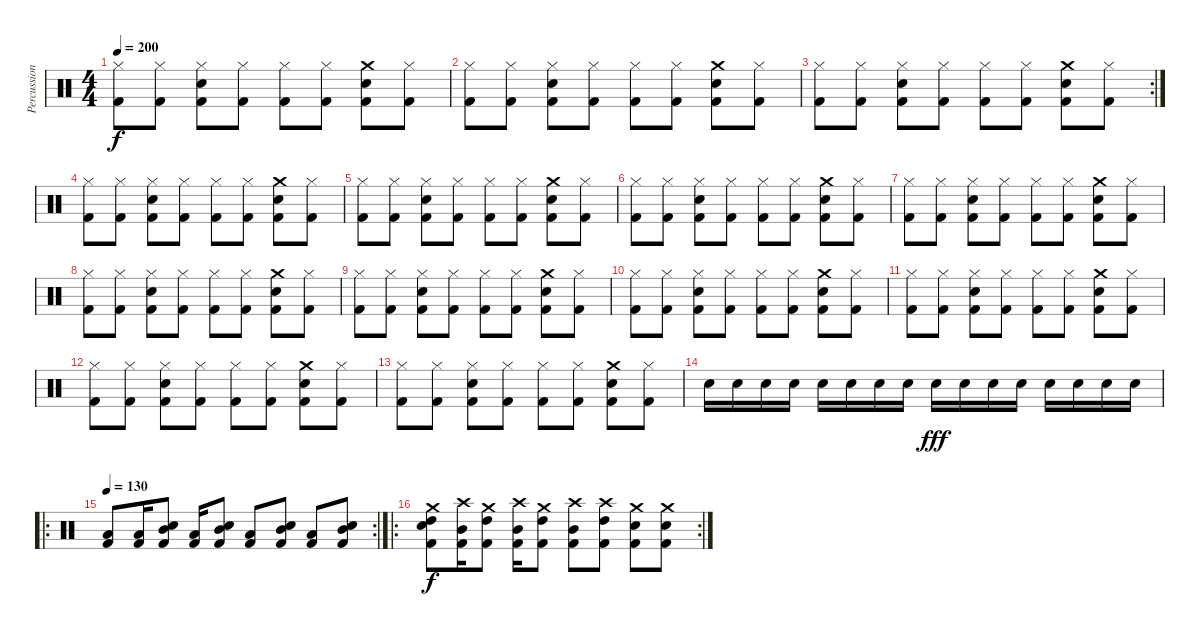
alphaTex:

\track ("Percussion" "Percussion") {instrument percussion}
\staff {score}
\articulation defaults
\ts (4 4)
\tempo 200
\clef neutral
\ks c
("Hi-Hat (closed)" "Kick (hit) 2").8{dy f} ("Hi-Hat (closed)" "Kick (hit) 2").8 ("Hi-Hat (closed)" "Snare (hit) 2" "Kick (hit) 2").8 ("Hi-Hat (closed)" "Kick (hit) 2").8 ("Hi-Hat (closed)" "Kick (hit) 2").8 ("Hi-Hat (closed)" "Kick (hit) 2").8 ("Crash medium (hit)" "Snare (hit) 2" "Kick (hit) 2").8 ("Hi-Hat (closed)" "Kick (hit) 2").8 |
("Hi-Hat (closed)" "Kick (hit) 2").8 ("Hi-Hat (closed)" "Kick (hit) 2").8 ("Hi-Hat (closed)" "Snare (hit) 2" "Kick (hit) 2").8 ("Hi-Hat (closed)" "Kick (hit) 2").8 ("Hi-Hat (closed)" "Kick (hit) 2").8 ("Hi-Hat (closed)" "Kick (hit) 2").8 ("Crash medium (hit)" "Snare (hit) 2" "Kick (hit) 2").8 ("Hi-Hat (closed)" "Kick (hit) 2").8 |
\rc 2
("Hi-Hat (closed)" "Kick (hit) 2").8 ("Hi-Hat (closed)" "Kick (hit) 2").8 ("Hi-Hat (closed)" "Snare (hit) 2" "Kick (hit) 2").8 ("Hi-Hat (closed)" "Kick (hit) 2").8 ("Hi-Hat (closed)" "Kick (hit) 2").8 ("Hi-Hat (closed)" "Kick (hit) 2").8 ("Crash medium (hit)" "Snare (hit) 2" "Kick (hit) 2").8 ("Hi-Hat (closed)" "Kick (hit) 2").8 |
("Hi-Hat (closed)" "Kick (hit) 2").8 ("Hi-Hat (closed)" "Kick (hit) 2").8 ("Hi-Hat (closed)" "Snare (hit) 2" "Kick (hit) 2").8 ("Hi-Hat (closed)" "Kick (hit) 2").8 ("Hi-Hat (closed)" "Kick (hit) 2").8 ("Hi-Hat (closed)" "Kick (hit) 2").8 ("Crash medium (hit)" "Snare (hit) 2" "Kick (hit) 2").8 ("Hi-Hat (closed)" "Kick (hit) 2").8 |
("Hi-Hat (closed)" "Kick (hit) 2").8 ("Hi-Hat (closed)" "Kick (hit) 2").8 ("Hi-Hat (closed)" "Snare (hit) 2" "Kick (hit) 2").8 ("Hi-Hat (closed)" "Kick (hit) 2").8 ("Hi-Hat (closed)" "Kick (hit) 2").8 ("Hi-Hat (closed)" "Kick (hit) 2").8 ("Crash medium (hit)" "Snare (hit) 2" "Kick (hit) 2").8 ("Hi-Hat (closed)" "Kick (hit) 2").8 |
("Hi-Hat (closed)" "Kick (hit) 2").8 ("Hi-Hat (closed)" "Kick (hit) 2").8 ("Hi-Hat (closed)" "Snare (hit) 2" "Kick (hit) 2").8 ("Hi-Hat (closed)" "Kick (hit) 2").8 ("Hi-Hat (closed)" "Kick (hit) 2").8 ("Hi-Hat (closed)" "Kick (hit) 2").8 ("Crash medium (hit)" "Snare (hit) 2" "Kick (hit) 2").8 ("Hi-Hat (closed)" "Kick (hit) 2").8 |
("Hi-Hat (closed)" "Kick (hit) 2").8 ("Hi-Hat (closed)" "Kick (hit) 2").8 ("Hi-Hat (closed)" "Snare (hit) 2" "Kick (hit) 2").8 ("Hi-Hat (closed)" "Kick (hit) 2").8 ("Hi-Hat (closed)" "Kick (hit) 2").8 ("Hi-Hat (closed)" "Kick (hit) 2").8 ("Crash medium (hit)" "Snare (hit) 2" "Kick (hit) 2").8 ("Hi-Hat (closed)" "Kick (hit) 2").8 |
("Hi-Hat (closed)" "Kick (hit) 2").8 ("Hi-Hat (closed)" "Kick (hit) 2").8 ("Hi-Hat (closed)" "Snare (hit) 2" "Kick (hit) 2").8 ("Hi-Hat (closed)" "Kick (hit) 2").8 ("Hi-Hat (closed)" "Kick (hit) 2").8 ("Hi-Hat (closed)" "Kick (hit) 2").8 ("Crash medium (hit)" "Snare (hit) 2" "Kick (hit) 2").8 ("Hi-Hat (closed)" "Kick (hit) 2").8 |
("Hi-Hat (closed)" "Kick (hit) 2").8 ("Hi-Hat (closed)" "Kick (hit) 2").8 ("Hi-Hat (closed)" "Snare (hit) 2" "Kick (hit) 2").8 ("Hi-Hat (closed)" "Kick (hit) 2").8 ("Hi-Hat (closed)" "Kick (hit) 2").8 ("Hi-Hat (closed)" "Kick (hit) 2").8 ("Crash medium (hit)" "Snare (hit) 2" "Kick (hit) 2").8 ("Hi-Hat (closed)" "Kick (hit) 2").8 |
("Hi-Hat (closed)" "Kick (hit) 2").8 ("Hi-Hat (closed)" "Kick (hit) 2").8 ("Hi-Hat (closed)" "Snare (hit) 2" "Kick (hit) 2").8 ("Hi-Hat (closed)" "Kick (hit) 2").8 ("Hi-Hat (closed)" "Kick (hit) 2").8 ("Hi-Hat (closed)" "Kick (hit) 2").8 ("Crash medium (hit)" "Snare (hit) 2" "Kick (hit) 2").8 ("Hi-Hat (closed)" "Kick (hit) 2").8 |
("Hi-Hat (closed)" "Kick (hit) 2").8 ("Hi-Hat (closed)" "Kick (hit) 2").8 ("Hi-Hat (closed)" "Snare (hit) 2" "Kick (hit) 2").8 ("Hi-Hat (closed)" "Kick (hit) 2").8 ("Hi-Hat (closed)" "Kick (hit) 2").8 ("Hi-Hat (closed)" "Kick (hit) 2").8 ("Crash medium (hit)" "Snare (hit) 2" "Kick (hit) 2").8 ("Hi-Hat (closed)" "Kick (hit) 2").8 |
("Hi-Hat (closed)" "Kick (hit) 2").8 ("Hi-Hat (closed)" "Kick (hit) 2").8 ("Hi-Hat (closed)" "Snare (hit) 2" "Kick (hit) 2").8 ("Hi-Hat (closed)" "Kick (hit) 2").8 ("Hi-Hat (closed)" "Kick (hit) 2").8 ("Hi-Hat (closed)" "Kick (hit) 2").8 ("Crash medium (hit)" "Snare (hit) 2" "Kick (hit) 2").8 ("Hi-Hat (closed)" "Kick (hit) 2").8 |
("Hi-Hat (closed)" "Kick (hit) 2").8 ("Hi-Hat (closed)" "Kick (hit) 2").8 ("Hi-Hat (closed)" "Snare (hit) 2" "Kick (hit) 2").8 ("Hi-Hat (closed)" "Kick (hit) 2").8 ("Hi-Hat (closed)" "Kick (hit) 2").8 ("Hi-Hat (closed)" "Kick (hit) 2").8 ("Crash medium (hit)" "Snare (hit) 2" "Kick (hit) 2").8 ("Hi-Hat (closed)" "Kick (hit) 2").8 |
"Snare (hit) 2".16 "Snare (hit) 2".16 "Snare (hit) 2".16 "Snare (hit) 2".16 "Snare (hit) 2".16 "Snare (hit) 2".16 "Snare (hit) 2".16 "Snare (hit) 2".16 "Snare (hit) 2".16{dy fff} "Snare (hit) 2".16 "Snare (hit) 2".16 "Snare (hit) 2".16 "Snare (hit) 2".16 "Snare (hit) 2".16 "Snare (hit) 2".16 "Snare (hit) 2".16 |
\ro
\rc 2
\tempo 130
("Kick (hit) 2" "Low Tom (hit)").8{volume 16} ("Kick (hit) 2" "Low Tom (hit)").16 ("Snare (hit) 2" "Kick (hit) 2" "Mid Tom (hit)").8 ("Kick (hit) 2" "Low Tom (hit)").16 ("Snare (hit) 2" "Kick (hit) 2" "Mid Tom (hit)").8 ("Kick (hit) 2" "Low Tom (hit)").8 ("Snare (hit) 2" "Kick (hit) 2" "Mid Tom (hit)").8 ("Kick (hit) 2" "Low Tom (hit)").8 ("Snare (hit) 2" "Kick (hit) 2" "Mid Tom (hit)").8 |
\ro
\rc 2
("Crash medium (hit)" "Snare (hit) 2" "Kick (hit) 2" "High Tom (hit)").8{dy f} ("Crash high (hit)" "Kick (hit) 2" "Mid Tom (hit)").16 ("Crash medium (hit)" "Kick (hit) 2" "High Tom (hit)").8 ("Crash high (hit)" "Kick (hit) 2" "Mid Tom (hit)").16 ("Crash medium (hit)" "Kick (hit) 2" "High Tom (hit)").8 ("Crash high (hit)" "Kick (hit) 2" "Mid Tom (hit)").8 ("Crash high (hit)" "Kick (hit) 2" "High Tom (hit)").8 ("Crash medium (hit)" "Snare (hit) 2" "Kick (hit) 2").8 ("Crash medium (hit)" "Snare (hit) 2" "Kick (hit) 2").8
